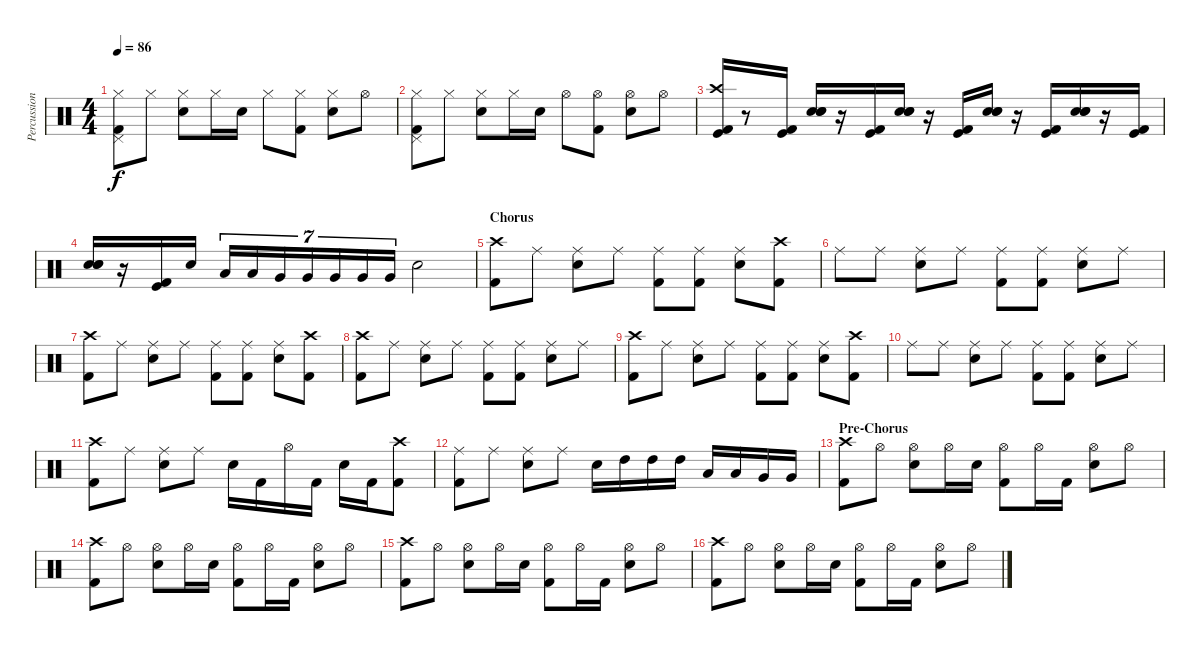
\track ("Percussions (from MIDI)" "Percussion") {instrument percussion}
\staff {score}
\articulation defaults
\ts (4 4)
\tempo 86
\clef neutral
\ks c
("Hi-Hat (closed)" "Kick (hit) 2" "Pedal Hi-Hat (hit)").8{dy f} "Hi-Hat (closed)".8 ("Hi-Hat (closed)" "Electric Snare (hit)").8 "Hi-Hat (closed)".16 "Electric Snare (hit)".16 "Hi-Hat (closed)".8 ("Hi-Hat (closed)" "Kick (hit) 2").8 ("Hi-Hat (closed)" "Electric Snare (hit)").8 "Hi-Hat (open)".8 |
("Hi-Hat (closed)" "Kick (hit) 2" "Pedal Hi-Hat (hit)").8 "Hi-Hat (closed)".8 ("Hi-Hat (closed)" "Electric Snare (hit)").8 "Hi-Hat (closed)".16 "Electric Snare (hit)".16 "Hi-Hat (open)".8 ("Hi-Hat (open)" "Kick (hit) 2").8 ("Hi-Hat (open)" "Electric Snare (hit)").8 "Hi-Hat (open)".8 |
("Crash high (hit)" "Kick (hit) 2" "Kick (hit)").16 r.8 ("Kick (hit) 2" "Kick (hit)").16 ("Snare (hit)" "Snare (hit) 2" "Electric Snare (hit)").16 r.16 ("Kick (hit)" "Kick (hit) 2").16 ("Snare (hit)" "Electric Snare (hit)" "Snare (hit) 2").16 r.16 ("Kick (hit) 2" "Kick (hit)").16 ("Snare (hit)" "Snare (hit) 2" "Electric Snare (hit)").16 r.16 ("Kick (hit)" "Kick (hit) 2").16 ("Snare (hit)" "Electric Snare (hit)" "Snare (hit) 2").16 r.16 ("Kick (hit) 2" "Kick (hit)").16 |
("Snare (hit)" "Electric Snare (hit)" "Snare (hit) 2").16 r.16 ("Kick (hit) 2" "Kick (hit)").16 "Snare (hit) 2".16 "Low Tom (hit)".16{tu (7 4)} "Low Tom (hit)".16{tu (7 4)} "Very Low Tom (hit)".16{tu (7 4)} "Very Low Tom (hit)".16{tu (7 4)} "Very Low Tom (hit)".16{tu (7 4)} "Very Low Tom (hit)".16{tu (7 4)} "Very Low Tom (hit)".16{tu (7 4)} "Electric Snare (hit)".2 |
\section ("" "Chorus")
("Crash high (hit)" "Kick (hit) 2").8 "Ride (middle)".8 ("Ride (middle)" "Electric Snare (hit)").8 "Ride (middle)".8 ("Ride (middle)" "Kick (hit) 2").8 ("Ride (middle)" "Kick (hit) 2").8 ("Ride (middle)" "Electric Snare (hit)").8 ("Crash high (hit)" "Kick (hit) 2").8 |
"Ride (middle)".8 "Ride (middle)".8 ("Ride (middle)" "Electric Snare (hit)").8 "Ride (middle)".8 ("Ride (middle)" "Kick (hit) 2").8 ("Ride (middle)" "Kick (hit) 2").8 ("Ride (middle)" "Electric Snare (hit)").8 "Ride (middle)".8 |
("Crash high (hit)" "Kick (hit) 2").8 "Ride (middle)".8 ("Ride (middle)" "Electric Snare (hit)").8 "Ride (middle)".8 ("Ride (middle)" "Kick (hit) 2").8 ("Ride (middle)" "Kick (hit) 2").8 ("Ride (middle)" "Electric Snare (hit)").8 ("Crash high (hit)" "Kick (hit) 2").8 |
("Crash high (hit)" "Kick (hit) 2").8 "Ride (middle)".8 ("Ride (middle)" "Electric Snare (hit)").8 "Ride (middle)".8 ("Ride (middle)" "Kick (hit) 2").8 ("Ride (middle)" "Kick (hit) 2").8 ("Ride (middle)" "Electric Snare (hit)").8 "Ride (middle)".8 |
("Crash high (hit)" "Kick (hit) 2").8 "Ride (middle)".8 ("Ride (middle)" "Electric Snare (hit)").8 "Ride (middle)".8 ("Ride (middle)" "Kick (hit) 2").8 ("Ride (middle)" "Kick (hit) 2").8 ("Ride (middle)" "Electric Snare (hit)").8 ("Crash high (hit)" "Kick (hit) 2").8 |
"Ride (middle)".8 "Ride (middle)".8 ("Ride (middle)" "Electric Snare (hit)").8 "Ride (middle)".8 ("Ride (middle)" "Kick (hit) 2").8 ("Ride (middle)" "Kick (hit) 2").8 ("Ride (middle)" "Electric Snare (hit)").8 "Ride (middle)".8 |
("Crash high (hit)" "Kick (hit) 2").8 "Ride (middle)".8 ("Ride (middle)" "Electric Snare (hit)").8 "Ride (middle)".8 "Electric Snare (hit)".16 "Kick (hit) 2".16 "Hi-Hat (open)".16 "Kick (hit) 2".16 "Electric Snare (hit)".16 "Kick (hit) 2".16 ("Crash high (hit)" "Kick (hit) 2").8 |
("Ride (middle)" "Kick (hit) 2").8 "Ride (middle)".8 ("Ride (middle)" "Electric Snare (hit)").8 "Ride (middle)".8 "Electric Snare (hit)".16 "High Tom (hit)".16 "High Tom (hit)".16 "High Tom (hit)".16 "Low Tom (hit)".16 "Low Tom (hit)".16 "Very Low Tom (hit)".16 "Very Low Tom (hit)".16 |
\section ("" "Pre-Chorus")
("Crash high (hit)" "Kick (hit) 2").8 "Hi-Hat (open)".8 ("Hi-Hat (open)" "Electric Snare (hit)").8 "Hi-Hat (open)".16 "Electric Snare (hit)".16 ("Hi-Hat (open)" "Kick (hit) 2").8 "Hi-Hat (open)".16 "Kick (hit) 2".16 ("Hi-Hat (open)" "Electric Snare (hit)").8 "Hi-Hat (open)".8 |
("Crash high (hit)" "Kick (hit) 2").8 "Hi-Hat (open)".8 ("Hi-Hat (open)" "Electric Snare (hit)").8 "Hi-Hat (open)".16 "Electric Snare (hit)".16 ("Hi-Hat (open)" "Kick (hit) 2").8 "Hi-Hat (open)".16 "Kick (hit) 2".16 ("Hi-Hat (open)" "Electric Snare (hit)").8 "Hi-Hat (open)".8 |
("Crash high (hit)" "Kick (hit) 2").8 "Hi-Hat (open)".8 ("Hi-Hat (open)" "Electric Snare (hit)").8 "Hi-Hat (open)".16 "Electric Snare (hit)".16 ("Hi-Hat (open)" "Kick (hit) 2").8 "Hi-Hat (open)".16 "Kick (hit) 2".16 ("Hi-Hat (open)" "Electric Snare (hit)").8 "Hi-Hat (open)".8 |
("Crash high (hit)" "Kick (hit) 2").8 "Hi-Hat (open)".8 ("Hi-Hat (open)" "Electric Snare (hit)").8 "Hi-Hat (open)".16 "Electric Snare (hit)".16 ("Hi-Hat (open)" "Kick (hit) 2").8 "Hi-Hat (open)".16 "Kick (hit) 2".16 ("Hi-Hat (open)" "Electric Snare (hit)").8 "Hi-Hat (open)".8
